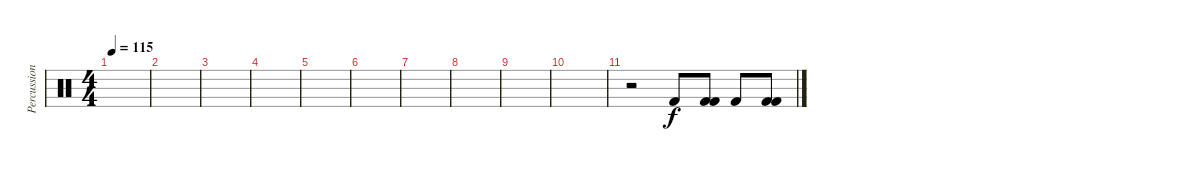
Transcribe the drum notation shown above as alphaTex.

\track ("Percussions" "Percussion") {instrument percussion}
\staff {score}
\articulation defaults
\ts (4 4)
\tempo 115
\clef neutral
\ks c
|
|
|
|
|
|
|
|
|
|
r.2 "Kick (hit) 2".8 ("Kick (hit) 2" "Kick (hit) 2").8 "Kick (hit) 2".8 ("Kick (hit) 2" "Kick (hit) 2").8
